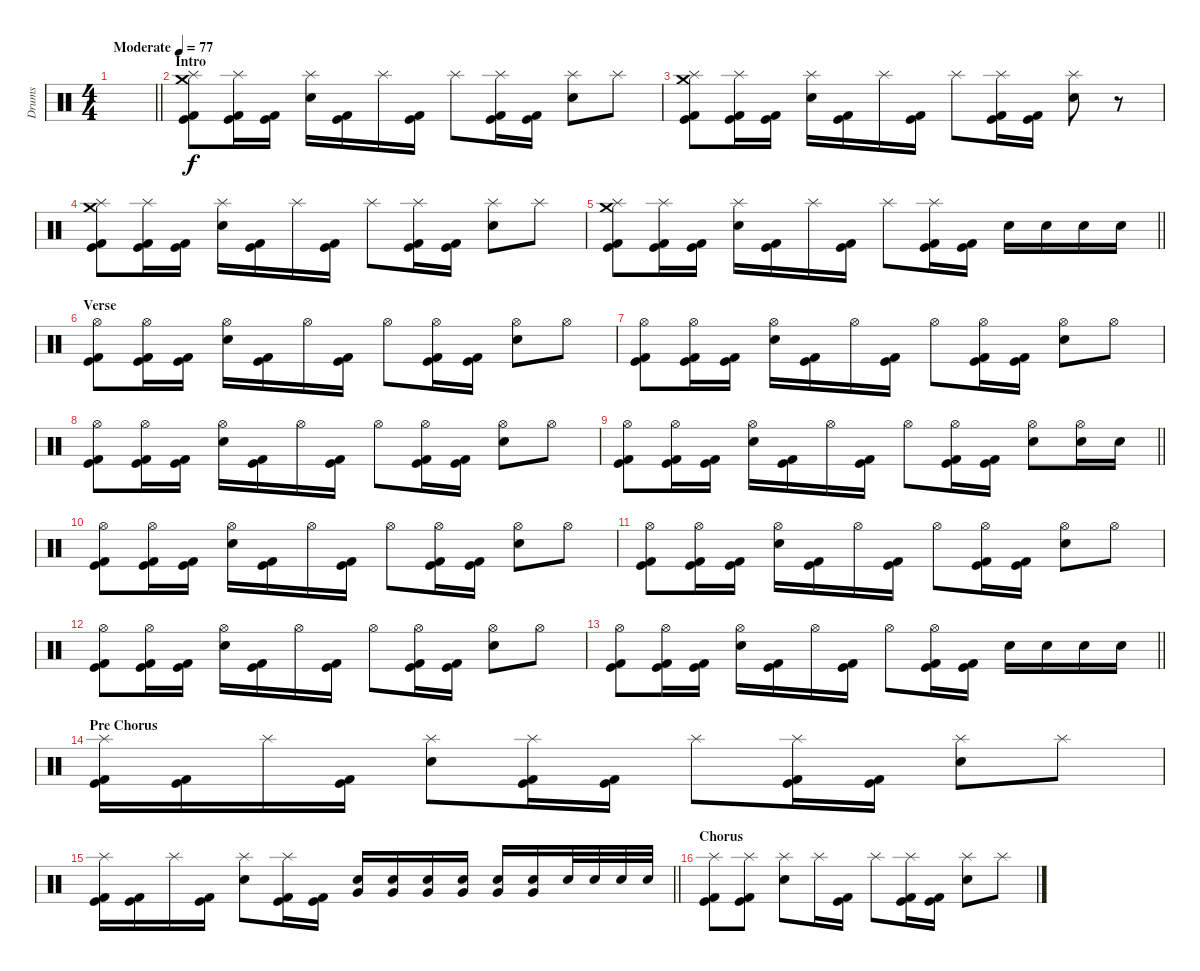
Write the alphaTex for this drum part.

\track ("Drums" "Drums") {instrument percussion}
\staff {score}
\articulation defaults
\ts (4 4)
\tempo (77 "Moderate")
\clef neutral
\barLineRight lightlight
\ks c
|
\section ("" "Intro")
("Splash (hit)" "Crash medium (hit)" "Kick (hit)" "Kick (hit) 2").8 ("Splash (hit)" "Kick (hit)" "Kick (hit) 2").16 ("Kick (hit)" "Kick (hit) 2").16 ("Splash (hit)" "Snare (hit) 2").16 ("Kick (hit)" "Kick (hit) 2").16 "Splash (hit)".16 ("Kick (hit)" "Kick (hit) 2").16 "Splash (hit)".8 ("Splash (hit)" "Kick (hit)" "Kick (hit) 2").16 ("Kick (hit)" "Kick (hit) 2").16 ("Splash (hit)" "Snare (hit) 2").8 "Splash (hit)".8 |
("Splash (hit)" "Crash medium (hit)" "Kick (hit)" "Kick (hit) 2").8 ("Splash (hit)" "Kick (hit)" "Kick (hit) 2").16 ("Kick (hit)" "Kick (hit) 2").16 ("Splash (hit)" "Snare (hit) 2").16 ("Kick (hit)" "Kick (hit) 2").16 "Splash (hit)".16 ("Kick (hit)" "Kick (hit) 2").16 "Splash (hit)".8 ("Splash (hit)" "Kick (hit)" "Kick (hit) 2").16 ("Kick (hit)" "Kick (hit) 2").16 ("Splash (hit)" "Snare (hit) 2").8 r.8 |
("Splash (hit)" "Crash medium (hit)" "Kick (hit)" "Kick (hit) 2").8 ("Splash (hit)" "Kick (hit)" "Kick (hit) 2").16 ("Kick (hit)" "Kick (hit) 2").16 ("Splash (hit)" "Snare (hit) 2").16 ("Kick (hit)" "Kick (hit) 2").16 "Splash (hit)".16 ("Kick (hit)" "Kick (hit) 2").16 "Splash (hit)".8 ("Splash (hit)" "Kick (hit)" "Kick (hit) 2").16 ("Kick (hit)" "Kick (hit) 2").16 ("Splash (hit)" "Snare (hit) 2").8 "Splash (hit)".8 |
\barLineRight lightlight
("Splash (hit)" "Crash medium (hit)" "Kick (hit)" "Kick (hit) 2").8 ("Splash (hit)" "Kick (hit)" "Kick (hit) 2").16 ("Kick (hit)" "Kick (hit) 2").16 ("Splash (hit)" "Snare (hit) 2").16 ("Kick (hit)" "Kick (hit) 2").16 "Splash (hit)".16 ("Kick (hit)" "Kick (hit) 2").16 "Splash (hit)".8 ("Splash (hit)" "Kick (hit)" "Kick (hit) 2").16 ("Kick (hit)" "Kick (hit) 2").16 "Snare (hit) 2".16 "Snare (hit) 2".16 "Snare (hit) 2".16 "Snare (hit) 2".16 |
\section ("" "Verse")
("Hi-Hat (open)" "Kick (hit)" "Kick (hit) 2").8 ("Hi-Hat (open)" "Kick (hit)" "Kick (hit) 2").16 ("Kick (hit)" "Kick (hit) 2").16 ("Hi-Hat (open)" "Snare (hit) 2").16 ("Kick (hit)" "Kick (hit) 2").16 "Hi-Hat (open)".16 ("Kick (hit)" "Kick (hit) 2").16 "Hi-Hat (open)".8 ("Hi-Hat (open)" "Kick (hit)" "Kick (hit) 2").16 ("Kick (hit)" "Kick (hit) 2").16 ("Hi-Hat (open)" "Snare (hit) 2").8 "Hi-Hat (open)".8 |
("Hi-Hat (open)" "Kick (hit)" "Kick (hit) 2").8 ("Hi-Hat (open)" "Kick (hit)" "Kick (hit) 2").16 ("Kick (hit)" "Kick (hit) 2").16 ("Hi-Hat (open)" "Snare (hit) 2").16 ("Kick (hit)" "Kick (hit) 2").16 "Hi-Hat (open)".16 ("Kick (hit)" "Kick (hit) 2").16 "Hi-Hat (open)".8 ("Hi-Hat (open)" "Kick (hit)" "Kick (hit) 2").16 ("Kick (hit)" "Kick (hit) 2").16 ("Hi-Hat (open)" "Snare (hit) 2").8 "Hi-Hat (open)".8 |
("Hi-Hat (open)" "Kick (hit)" "Kick (hit) 2").8 ("Hi-Hat (open)" "Kick (hit)" "Kick (hit) 2").16 ("Kick (hit)" "Kick (hit) 2").16 ("Hi-Hat (open)" "Snare (hit) 2").16 ("Kick (hit)" "Kick (hit) 2").16 "Hi-Hat (open)".16 ("Kick (hit)" "Kick (hit) 2").16 "Hi-Hat (open)".8 ("Hi-Hat (open)" "Kick (hit)" "Kick (hit) 2").16 ("Kick (hit)" "Kick (hit) 2").16 ("Hi-Hat (open)" "Snare (hit) 2").8 "Hi-Hat (open)".8 |
\barLineRight lightlight
("Hi-Hat (open)" "Kick (hit)" "Kick (hit) 2").8 ("Hi-Hat (open)" "Kick (hit)" "Kick (hit) 2").16 ("Kick (hit)" "Kick (hit) 2").16 ("Hi-Hat (open)" "Snare (hit) 2").16 ("Kick (hit)" "Kick (hit) 2").16 "Hi-Hat (open)".16 ("Kick (hit)" "Kick (hit) 2").16 "Hi-Hat (open)".8 ("Hi-Hat (open)" "Kick (hit)" "Kick (hit) 2").16 ("Kick (hit)" "Kick (hit) 2").16 ("Hi-Hat (open)" "Snare (hit) 2").8 ("Hi-Hat (open)" "Snare (hit) 2").16 "Snare (hit) 2".16 |
("Hi-Hat (open)" "Kick (hit)" "Kick (hit) 2").8 ("Hi-Hat (open)" "Kick (hit)" "Kick (hit) 2").16 ("Kick (hit)" "Kick (hit) 2").16 ("Hi-Hat (open)" "Snare (hit) 2").16 ("Kick (hit)" "Kick (hit) 2").16 "Hi-Hat (open)".16 ("Kick (hit)" "Kick (hit) 2").16 "Hi-Hat (open)".8 ("Hi-Hat (open)" "Kick (hit)" "Kick (hit) 2").16 ("Kick (hit)" "Kick (hit) 2").16 ("Hi-Hat (open)" "Snare (hit) 2").8 "Hi-Hat (open)".8 |
("Hi-Hat (open)" "Kick (hit)" "Kick (hit) 2").8 ("Hi-Hat (open)" "Kick (hit)" "Kick (hit) 2").16 ("Kick (hit)" "Kick (hit) 2").16 ("Hi-Hat (open)" "Snare (hit) 2").16 ("Kick (hit)" "Kick (hit) 2").16 "Hi-Hat (open)".16 ("Kick (hit)" "Kick (hit) 2").16 "Hi-Hat (open)".8 ("Hi-Hat (open)" "Kick (hit)" "Kick (hit) 2").16 ("Kick (hit)" "Kick (hit) 2").16 ("Hi-Hat (open)" "Snare (hit) 2").8 "Hi-Hat (open)".8 |
("Hi-Hat (open)" "Kick (hit)" "Kick (hit) 2").8 ("Hi-Hat (open)" "Kick (hit)" "Kick (hit) 2").16 ("Kick (hit)" "Kick (hit) 2").16 ("Hi-Hat (open)" "Snare (hit) 2").16 ("Kick (hit)" "Kick (hit) 2").16 "Hi-Hat (open)".16 ("Kick (hit)" "Kick (hit) 2").16 "Hi-Hat (open)".8 ("Hi-Hat (open)" "Kick (hit)" "Kick (hit) 2").16 ("Kick (hit)" "Kick (hit) 2").16 ("Hi-Hat (open)" "Snare (hit) 2").8 "Hi-Hat (open)".8 |
\barLineRight lightlight
("Hi-Hat (open)" "Kick (hit)" "Kick (hit) 2").8 ("Hi-Hat (open)" "Kick (hit)" "Kick (hit) 2").16 ("Kick (hit)" "Kick (hit) 2").16 ("Hi-Hat (open)" "Snare (hit) 2").16 ("Kick (hit)" "Kick (hit) 2").16 "Hi-Hat (open)".16 ("Kick (hit)" "Kick (hit) 2").16 "Hi-Hat (open)".8 ("Hi-Hat (open)" "Kick (hit)" "Kick (hit) 2").16 ("Kick (hit)" "Kick (hit) 2").16 "Snare (hit) 2".16 "Snare (hit) 2".16 "Snare (hit) 2".16 "Snare (hit) 2".16 |
\section ("" "Pre Chorus")
("Splash (hit)" "Kick (hit)" "Kick (hit) 2").16 ("Kick (hit)" "Kick (hit) 2").16 "Splash (hit)".16 ("Kick (hit)" "Kick (hit) 2").16 ("Splash (hit)" "Snare (hit) 2").8 ("Splash (hit)" "Kick (hit)" "Kick (hit) 2").16 ("Kick (hit)" "Kick (hit) 2").16 "Splash (hit)".8 ("Splash (hit)" "Kick (hit)" "Kick (hit) 2").16 ("Kick (hit)" "Kick (hit) 2").16 ("Splash (hit)" "Snare (hit) 2").8 "Splash (hit)".8 |
\barLineRight lightlight
("Splash (hit)" "Kick (hit)" "Kick (hit) 2").16 ("Kick (hit)" "Kick (hit) 2").16 "Splash (hit)".16 ("Kick (hit)" "Kick (hit) 2").16 ("Splash (hit)" "Snare (hit) 2").8 ("Splash (hit)" "Kick (hit)" "Kick (hit) 2").16 ("Kick (hit)" "Kick (hit) 2").16 ("Very Low Tom (hit)" "Snare (hit) 2").16 ("Very Low Tom (hit)" "Snare (hit) 2").16 ("Very Low Tom (hit)" "Snare (hit) 2").16 ("Very Low Tom (hit)" "Snare (hit) 2").16 ("Very Low Tom (hit)" "Snare (hit) 2").16 ("Very Low Tom (hit)" "Snare (hit) 2").16 "Snare (hit) 2".32 "Snare (hit) 2".32 "Snare (hit) 2".32 "Snare (hit) 2".32 |
\section ("" "Chorus")
("Splash (hit)" "Kick (hit)" "Kick (hit) 2").8 ("Splash (hit)" "Kick (hit)" "Kick (hit) 2").8 ("Splash (hit)" "Snare (hit) 2").8 "Splash (hit)".16 ("Kick (hit)" "Kick (hit) 2").16 "Splash (hit)".8 ("Splash (hit)" "Kick (hit)" "Kick (hit) 2").16 ("Kick (hit)" "Kick (hit) 2").16 ("Splash (hit)" "Snare (hit) 2").8 "Splash (hit)".8
